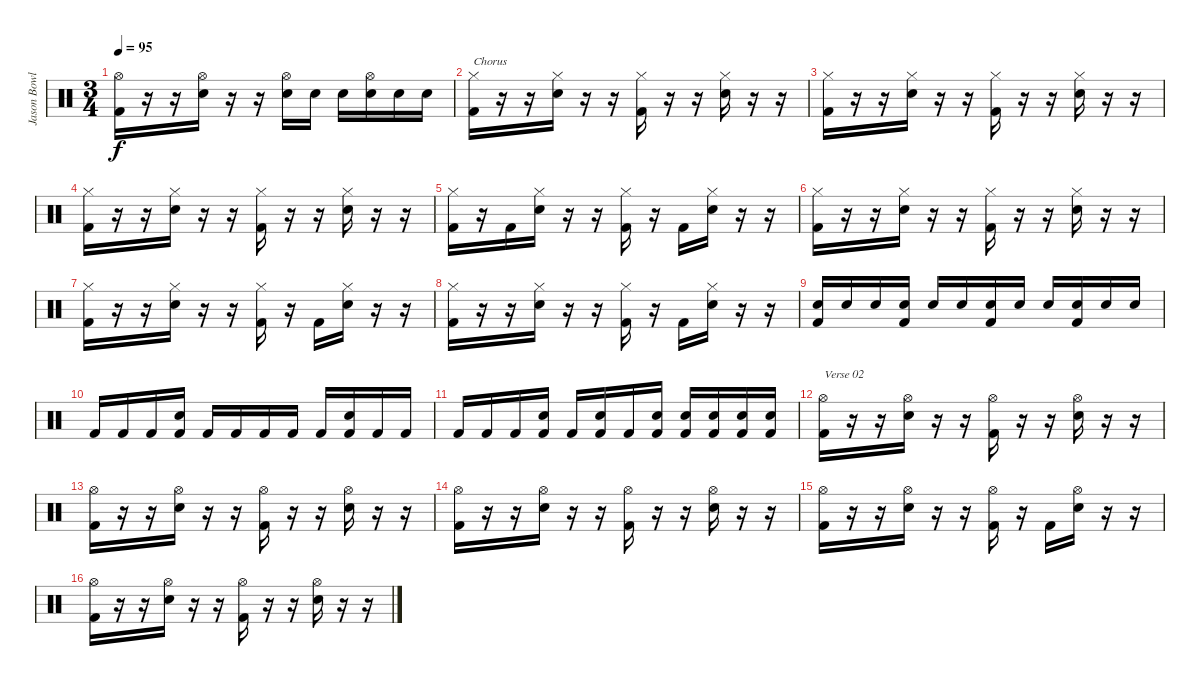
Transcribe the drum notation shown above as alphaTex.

\track ("Jason Bowld" "Jason Bowl") {instrument percussion}
\staff {score}
\articulation defaults
\ts (3 4)
\tempo 95
\clef neutral
\ks c
("Hi-Hat (open)" "Kick (hit) 2").16{dy f} r.16 r.16 ("Hi-Hat (open)" "Snare (hit) 2").16 r.16 r.16 ("Hi-Hat (open)" "Snare (hit) 2").16 "Snare (hit) 2".16 "Snare (hit) 2".16 ("Hi-Hat (open)" "Snare (hit) 2").16 "Snare (hit) 2".16 "Snare (hit) 2".16 |
("Hi-Hat (closed)" "Kick (hit) 2").16{txt "Chorus"} r.16 r.16 ("Hi-Hat (closed)" "Snare (hit) 2").16 r.16 r.16 ("Hi-Hat (closed)" "Kick (hit) 2").16 r.16 r.16 ("Hi-Hat (closed)" "Snare (hit) 2").16 r.16 r.16 |
("Hi-Hat (closed)" "Kick (hit) 2").16 r.16 r.16 ("Hi-Hat (closed)" "Snare (hit) 2").16 r.16 r.16 ("Hi-Hat (closed)" "Kick (hit) 2").16 r.16 r.16 ("Hi-Hat (closed)" "Snare (hit) 2").16 r.16 r.16 |
("Hi-Hat (closed)" "Kick (hit) 2").16 r.16 r.16 ("Hi-Hat (closed)" "Snare (hit) 2").16 r.16 r.16 ("Hi-Hat (closed)" "Kick (hit) 2").16 r.16 r.16 ("Hi-Hat (closed)" "Snare (hit) 2").16 r.16 r.16 |
("Hi-Hat (closed)" "Kick (hit) 2").16 r.16 "Kick (hit) 2".16 ("Hi-Hat (closed)" "Snare (hit) 2").16 r.16 r.16 ("Hi-Hat (closed)" "Kick (hit) 2").16 r.16 "Kick (hit) 2".16 ("Hi-Hat (closed)" "Snare (hit) 2").16 r.16 r.16 |
("Hi-Hat (closed)" "Kick (hit) 2").16 r.16 r.16 ("Hi-Hat (closed)" "Snare (hit) 2").16 r.16 r.16 ("Hi-Hat (closed)" "Kick (hit) 2").16 r.16 r.16 ("Hi-Hat (closed)" "Snare (hit) 2").16 r.16 r.16 |
("Hi-Hat (closed)" "Kick (hit) 2").16 r.16 r.16 ("Hi-Hat (closed)" "Snare (hit) 2").16 r.16 r.16 ("Hi-Hat (closed)" "Kick (hit) 2").16 r.16 "Kick (hit) 2".16 ("Hi-Hat (closed)" "Snare (hit) 2").16 r.16 r.16 |
("Hi-Hat (closed)" "Kick (hit) 2").16 r.16 r.16 ("Hi-Hat (closed)" "Snare (hit) 2").16 r.16 r.16 ("Hi-Hat (closed)" "Kick (hit) 2").16 r.16 "Kick (hit) 2".16 ("Hi-Hat (closed)" "Snare (hit) 2").16 r.16 r.16 |
("Kick (hit) 2" "Snare (hit) 2").16 "Snare (hit) 2".16 "Snare (hit) 2".16 ("Kick (hit) 2" "Snare (hit) 2").16 "Snare (hit) 2".16 "Snare (hit) 2".16 ("Kick (hit) 2" "Snare (hit) 2").16 "Snare (hit) 2".16 "Snare (hit) 2".16 ("Kick (hit) 2" "Snare (hit) 2").16 "Snare (hit) 2".16 "Snare (hit) 2".16 |
"Kick (hit) 2".16 "Kick (hit) 2".16 "Kick (hit) 2".16 ("Kick (hit) 2" "Snare (hit) 2").16 "Kick (hit) 2".16 "Kick (hit) 2".16 "Kick (hit) 2".16 "Kick (hit) 2".16 "Kick (hit) 2".16 ("Kick (hit) 2" "Snare (hit) 2").16 "Kick (hit) 2".16 "Kick (hit) 2".16 |
"Kick (hit) 2".16 "Kick (hit) 2".16 "Kick (hit) 2".16 ("Kick (hit) 2" "Snare (hit) 2").16 "Kick (hit) 2".16 ("Kick (hit) 2" "Snare (hit) 2").16 "Kick (hit) 2".16 ("Kick (hit) 2" "Snare (hit) 2").16 ("Kick (hit) 2" "Snare (hit) 2").16 ("Kick (hit) 2" "Snare (hit) 2").16 ("Kick (hit) 2" "Snare (hit) 2").16 ("Kick (hit) 2" "Snare (hit) 2").16 |
("Hi-Hat (open)" "Kick (hit) 2").16{txt "Verse 02"} r.16 r.16 ("Hi-Hat (open)" "Snare (hit) 2").16 r.16 r.16 ("Hi-Hat (open)" "Kick (hit) 2").16 r.16 r.16 ("Hi-Hat (open)" "Snare (hit) 2").16 r.16 r.16 |
("Hi-Hat (open)" "Kick (hit) 2").16 r.16 r.16 ("Hi-Hat (open)" "Snare (hit) 2").16 r.16 r.16 ("Hi-Hat (open)" "Kick (hit) 2").16 r.16 r.16 ("Hi-Hat (open)" "Snare (hit) 2").16 r.16 r.16 |
("Hi-Hat (open)" "Kick (hit) 2").16 r.16 r.16 ("Hi-Hat (open)" "Snare (hit) 2").16 r.16 r.16 ("Hi-Hat (open)" "Kick (hit) 2").16 r.16 r.16 ("Hi-Hat (open)" "Snare (hit) 2").16 r.16 r.16 |
("Hi-Hat (open)" "Kick (hit) 2").16 r.16 r.16 ("Hi-Hat (open)" "Snare (hit) 2").16 r.16 r.16 ("Hi-Hat (open)" "Kick (hit) 2").16 r.16 "Kick (hit) 2".16 ("Hi-Hat (open)" "Snare (hit) 2").16 r.16 r.16 |
("Hi-Hat (open)" "Kick (hit) 2").16 r.16 r.16 ("Hi-Hat (open)" "Snare (hit) 2").16 r.16 r.16 ("Hi-Hat (open)" "Kick (hit) 2").16 r.16 r.16 ("Hi-Hat (open)" "Snare (hit) 2").16 r.16 r.16
